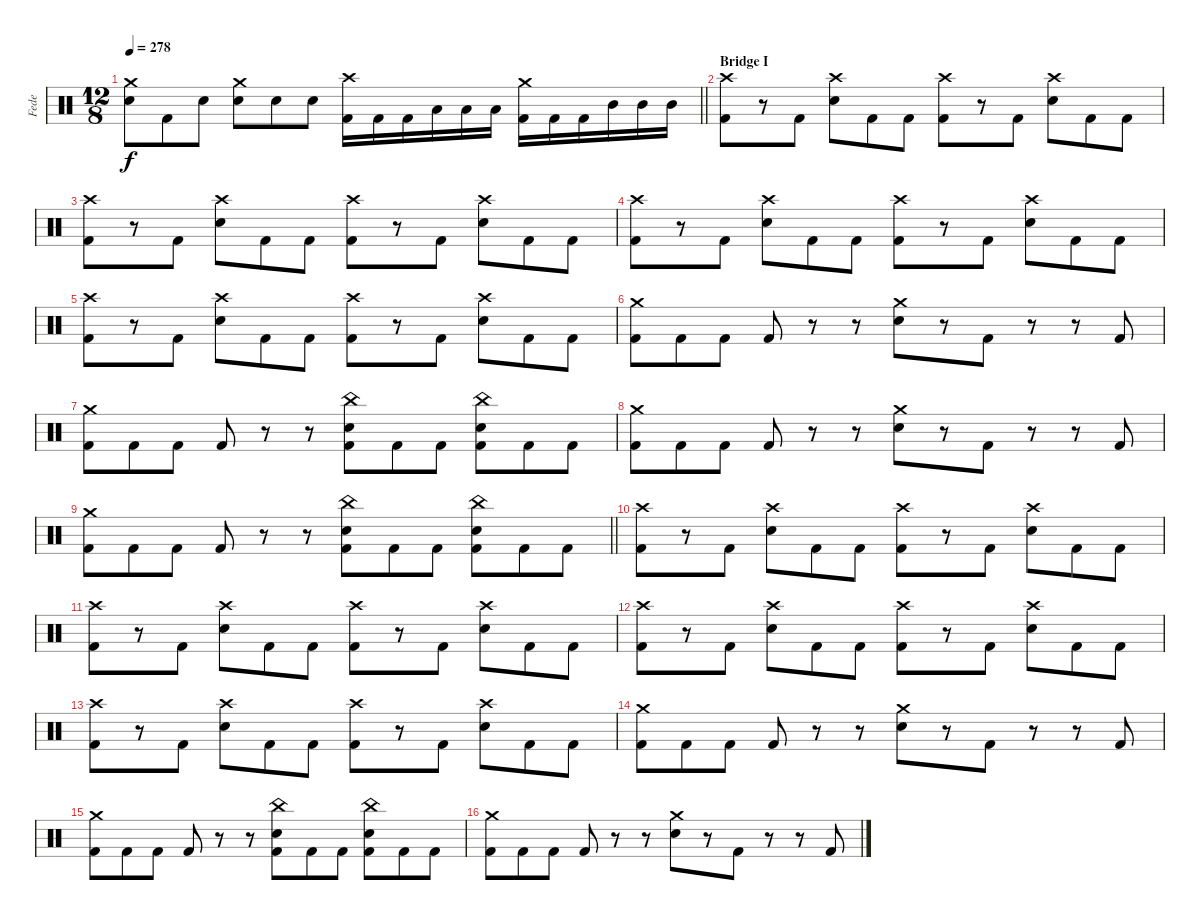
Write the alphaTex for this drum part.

\track ("Fede" "Fede") {instrument percussion}
\staff {score}
\articulation defaults
\ts (12 8)
\tempo 278
\clef neutral
\barLineRight lightlight
\ks c
("Crash medium (hit)" "Snare (hit) 2").8{dy f} "Kick (hit) 2".8 "Snare (hit) 2".8 ("Crash medium (hit)" "Snare (hit) 2").8 "Snare (hit) 2".8 "Snare (hit) 2".8 ("Crash high (hit)" "Kick (hit) 2").16 "Kick (hit) 2".16 "Kick (hit) 2".16 "Low Tom (hit)".16 "Low Tom (hit)".16 "Low Tom (hit)".16 ("Crash medium (hit)" "Kick (hit) 2").16 "Kick (hit) 2".16 "Kick (hit) 2".16 "Mid Tom (hit)".16 "Mid Tom (hit)".16 "Mid Tom (hit)".16 |
\section ("" "Bridge I")
("Crash high (hit)" "Kick (hit) 2").8 r.8 "Kick (hit) 2".8 ("Crash high (hit)" "Snare (hit) 2").8 "Kick (hit) 2".8 "Kick (hit) 2".8 ("Crash high (hit)" "Kick (hit) 2").8 r.8 "Kick (hit) 2".8 ("Crash high (hit)" "Snare (hit) 2").8 "Kick (hit) 2".8 "Kick (hit) 2".8 |
("Crash high (hit)" "Kick (hit) 2").8 r.8 "Kick (hit) 2".8 ("Crash high (hit)" "Snare (hit) 2").8 "Kick (hit) 2".8 "Kick (hit) 2".8 ("Crash high (hit)" "Kick (hit) 2").8 r.8 "Kick (hit) 2".8 ("Crash high (hit)" "Snare (hit) 2").8 "Kick (hit) 2".8 "Kick (hit) 2".8 |
("Crash high (hit)" "Kick (hit) 2").8 r.8 "Kick (hit) 2".8 ("Crash high (hit)" "Snare (hit) 2").8 "Kick (hit) 2".8 "Kick (hit) 2".8 ("Crash high (hit)" "Kick (hit) 2").8 r.8 "Kick (hit) 2".8 ("Crash high (hit)" "Snare (hit) 2").8 "Kick (hit) 2".8 "Kick (hit) 2".8 |
("Crash high (hit)" "Kick (hit) 2").8 r.8 "Kick (hit) 2".8 ("Crash high (hit)" "Snare (hit) 2").8 "Kick (hit) 2".8 "Kick (hit) 2".8 ("Crash high (hit)" "Kick (hit) 2").8 r.8 "Kick (hit) 2".8 ("Crash high (hit)" "Snare (hit) 2").8 "Kick (hit) 2".8 "Kick (hit) 2".8 |
("Crash medium (hit)" "Kick (hit) 2").8 "Kick (hit) 2".8 "Kick (hit) 2".8 "Kick (hit) 2".8 r.8 r.8 ("Crash medium (hit)" "Snare (hit) 2").8 r.8 "Kick (hit) 2".8 r.8 r.8 "Kick (hit) 2".8 |
("Crash medium (hit)" "Kick (hit) 2").8 "Kick (hit) 2".8 "Kick (hit) 2".8 "Kick (hit) 2".8 r.8 r.8 ("China (hit)" "Snare (hit) 2" "Kick (hit) 2").8 "Kick (hit) 2".8 "Kick (hit) 2".8 ("China (hit)" "Snare (hit) 2" "Kick (hit) 2").8 "Kick (hit) 2".8 "Kick (hit) 2".8 |
("Crash medium (hit)" "Kick (hit) 2").8 "Kick (hit) 2".8 "Kick (hit) 2".8 "Kick (hit) 2".8 r.8 r.8 ("Crash medium (hit)" "Snare (hit) 2").8 r.8 "Kick (hit) 2".8 r.8 r.8 "Kick (hit) 2".8 |
\barLineRight lightlight
("Crash medium (hit)" "Kick (hit) 2").8 "Kick (hit) 2".8 "Kick (hit) 2".8 "Kick (hit) 2".8 r.8 r.8 ("China (hit)" "Snare (hit) 2" "Kick (hit) 2").8 "Kick (hit) 2".8 "Kick (hit) 2".8 ("China (hit)" "Snare (hit) 2" "Kick (hit) 2").8 "Kick (hit) 2".8 "Kick (hit) 2".8 |
("Crash high (hit)" "Kick (hit) 2").8 r.8 "Kick (hit) 2".8 ("Crash high (hit)" "Snare (hit) 2").8 "Kick (hit) 2".8 "Kick (hit) 2".8 ("Crash high (hit)" "Kick (hit) 2").8 r.8 "Kick (hit) 2".8 ("Crash high (hit)" "Snare (hit) 2").8 "Kick (hit) 2".8 "Kick (hit) 2".8 |
("Crash high (hit)" "Kick (hit) 2").8 r.8 "Kick (hit) 2".8 ("Crash high (hit)" "Snare (hit) 2").8 "Kick (hit) 2".8 "Kick (hit) 2".8 ("Crash high (hit)" "Kick (hit) 2").8 r.8 "Kick (hit) 2".8 ("Crash high (hit)" "Snare (hit) 2").8 "Kick (hit) 2".8 "Kick (hit) 2".8 |
("Crash high (hit)" "Kick (hit) 2").8 r.8 "Kick (hit) 2".8 ("Crash high (hit)" "Snare (hit) 2").8 "Kick (hit) 2".8 "Kick (hit) 2".8 ("Crash high (hit)" "Kick (hit) 2").8 r.8 "Kick (hit) 2".8 ("Crash high (hit)" "Snare (hit) 2").8 "Kick (hit) 2".8 "Kick (hit) 2".8 |
("Crash high (hit)" "Kick (hit) 2").8 r.8 "Kick (hit) 2".8 ("Crash high (hit)" "Snare (hit) 2").8 "Kick (hit) 2".8 "Kick (hit) 2".8 ("Crash high (hit)" "Kick (hit) 2").8 r.8 "Kick (hit) 2".8 ("Crash high (hit)" "Snare (hit) 2").8 "Kick (hit) 2".8 "Kick (hit) 2".8 |
("Crash medium (hit)" "Kick (hit) 2").8 "Kick (hit) 2".8 "Kick (hit) 2".8 "Kick (hit) 2".8 r.8 r.8 ("Crash medium (hit)" "Snare (hit) 2").8 r.8 "Kick (hit) 2".8 r.8 r.8 "Kick (hit) 2".8 |
("Crash medium (hit)" "Kick (hit) 2").8 "Kick (hit) 2".8 "Kick (hit) 2".8 "Kick (hit) 2".8 r.8 r.8 ("China (hit)" "Snare (hit) 2" "Kick (hit) 2").8 "Kick (hit) 2".8 "Kick (hit) 2".8 ("China (hit)" "Snare (hit) 2" "Kick (hit) 2").8 "Kick (hit) 2".8 "Kick (hit) 2".8 |
("Crash medium (hit)" "Kick (hit) 2").8 "Kick (hit) 2".8 "Kick (hit) 2".8 "Kick (hit) 2".8 r.8 r.8 ("Crash medium (hit)" "Snare (hit) 2").8 r.8 "Kick (hit) 2".8 r.8 r.8 "Kick (hit) 2".8
